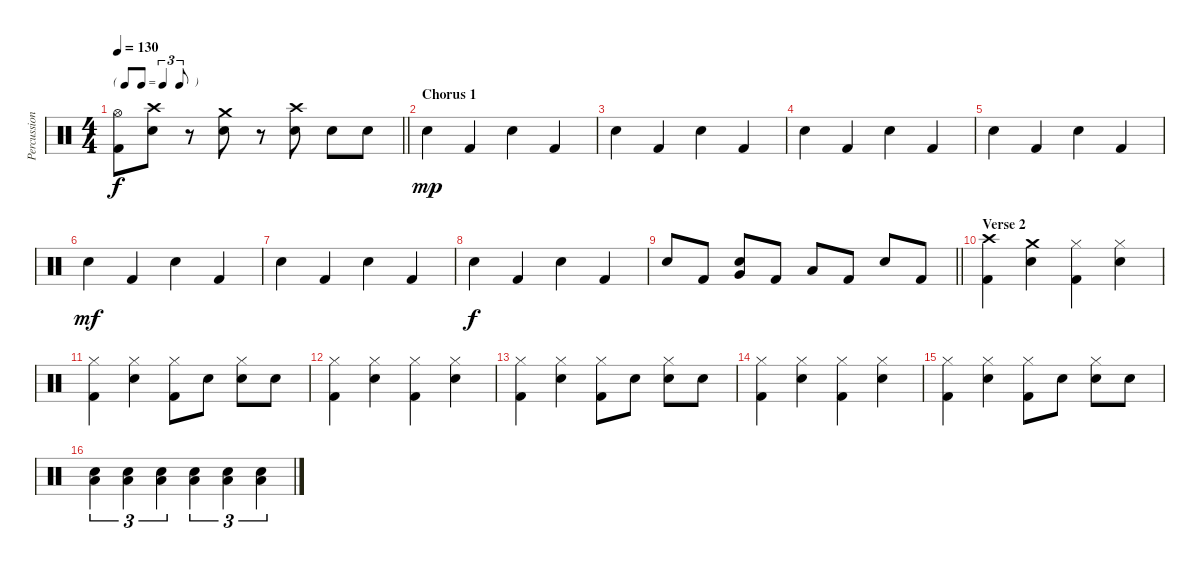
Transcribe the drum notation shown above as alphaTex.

\track ("Percussion" "Percussion") {instrument percussion}
\staff {score}
\articulation defaults
\ts (4 4)
\tf triplet8th
\tempo 130
\clef neutral
\barLineRight lightlight
\ks c
("Hi-Hat (open)" "Kick (hit) 2").8{dy f} ("Crash high (hit)" "Snare (hit) 2").8 r.8 ("Crash medium (hit)" "Snare (hit) 2").8 r.8 ("Crash high (hit)" "Snare (hit) 2").8 "Snare (hit) 2".8 "Snare (hit) 2".8 |
\section ("" "Chorus 1")
"Snare (hit) 2".4{dy mp} "Kick (hit) 2".4 "Snare (hit) 2".4 "Kick (hit) 2".4 |
"Snare (hit) 2".4 "Kick (hit) 2".4 "Snare (hit) 2".4 "Kick (hit) 2".4 |
"Snare (hit) 2".4 "Kick (hit) 2".4 "Snare (hit) 2".4 "Kick (hit) 2".4 |
"Snare (hit) 2".4 "Kick (hit) 2".4 "Snare (hit) 2".4 "Kick (hit) 2".4 |
"Snare (hit) 2".4{dy mf} "Kick (hit) 2".4 "Snare (hit) 2".4 "Kick (hit) 2".4 |
"Snare (hit) 2".4 "Kick (hit) 2".4 "Snare (hit) 2".4 "Kick (hit) 2".4 |
"Snare (hit) 2".4{dy f} "Kick (hit) 2".4 "Snare (hit) 2".4 "Kick (hit) 2".4 |
\barLineRight lightlight "Snare (hit) 2".8 "Kick (hit) 2".8
("Snare (hit) 2" "Very Low Tom (hit)").8 "Kick (hit) 2".8 "Low Floor Tom (hit)".8 "Kick (hit) 2".8 "Snare (hit) 2".8 "Kick (hit) 2".8 |
\section ("" "Verse 2")
("Crash high (hit)" "Kick (hit) 2").4 ("Crash medium (hit)" "Snare (hit) 2").4 ("Hi-Hat (closed)" "Kick (hit) 2").4 ("Hi-Hat (closed)" "Snare (hit) 2").4 |
("Hi-Hat (closed)" "Kick (hit) 2").4 ("Hi-Hat (closed)" "Snare (hit) 2").4 ("Hi-Hat (closed)" "Kick (hit) 2").8 "Snare (hit) 2".8 ("Hi-Hat (closed)" "Snare (hit) 2").8 "Snare (hit) 2".8 |
("Hi-Hat (closed)" "Kick (hit) 2").4 ("Hi-Hat (closed)" "Snare (hit) 2").4 ("Hi-Hat (closed)" "Kick (hit) 2").4 ("Hi-Hat (closed)" "Snare (hit) 2").4 |
("Hi-Hat (closed)" "Kick (hit) 2").4 ("Hi-Hat (closed)" "Snare (hit) 2").4 ("Hi-Hat (closed)" "Kick (hit) 2").8 "Snare (hit) 2".8 ("Hi-Hat (closed)" "Snare (hit) 2").8 "Snare (hit) 2".8 |
("Hi-Hat (closed)" "Kick (hit) 2").4 ("Hi-Hat (closed)" "Snare (hit) 2").4 ("Hi-Hat (closed)" "Kick (hit) 2").4 ("Hi-Hat (closed)" "Snare (hit) 2").4 |
("Hi-Hat (closed)" "Kick (hit) 2").4 ("Hi-Hat (closed)" "Snare (hit) 2").4 ("Hi-Hat (closed)" "Kick (hit) 2").8 "Snare (hit) 2".8 ("Hi-Hat (closed)" "Snare (hit) 2").8 "Snare (hit) 2".8 |
("Snare (hit) 2" "Low Floor Tom (hit)").4{tu (3 2)} ("Snare (hit) 2" "Low Floor Tom (hit)").4{tu (3 2)} ("Snare (hit) 2" "Low Floor Tom (hit)").4{tu (3 2)} ("Snare (hit) 2" "Low Floor Tom (hit)").4{tu (3 2)} ("Snare (hit) 2" "Low Floor Tom (hit)").4{tu (3 2)} ("Snare (hit) 2" "Low Floor Tom (hit)").4{tu (3 2)}
